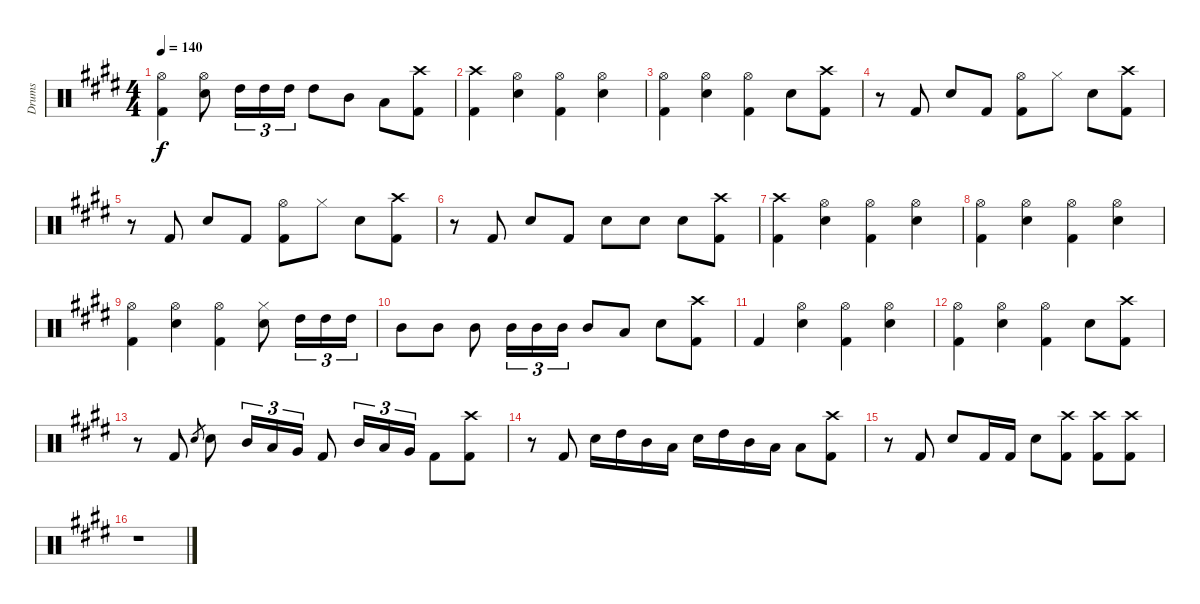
\track ("Drums" "Drums") {instrument percussion}
\staff {score}
\articulation defaults
\ts (4 4)
\tempo 140
\clef neutral
\ks e
("Hi-Hat (open)" "Kick (hit) 2").4{dy f} ("Hi-Hat (open)" "Electric Snare (hit)").8 "High Tom (hit)".16{tu (3 2)} "High Tom (hit)".16{tu (3 2)} "High Tom (hit)".16{tu (3 2)} "High Tom (hit)".8 "Mid Tom (hit)".8 "Low Tom (hit)".8 ("Crash high (hit)" "Kick (hit) 2").8 |
("Crash high (hit)" "Kick (hit) 2").4 ("Hi-Hat (open)" "Electric Snare (hit)").4 ("Hi-Hat (open)" "Kick (hit) 2").4 ("Hi-Hat (open)" "Electric Snare (hit)").4 |
("Hi-Hat (open)" "Kick (hit) 2").4 ("Hi-Hat (open)" "Electric Snare (hit)").4 ("Hi-Hat (open)" "Kick (hit) 2").4 "Electric Snare (hit)".8 ("Crash high (hit)" "Kick (hit) 2").8 |
r.8 "Kick (hit) 2".8 "Electric Snare (hit)".8 "Kick (hit) 2".8 ("Hi-Hat (open)" "Kick (hit) 2").8 "Hi-Hat (closed)".8 "Electric Snare (hit)".8 ("Crash high (hit)" "Kick (hit) 2").8 |
r.8 "Kick (hit) 2".8 "Electric Snare (hit)".8 "Kick (hit) 2".8 ("Hi-Hat (open)" "Kick (hit) 2").8 "Hi-Hat (closed)".8 "Electric Snare (hit)".8 ("Crash high (hit)" "Kick (hit) 2").8 |
r.8 "Kick (hit) 2".8 "Electric Snare (hit)".8 "Kick (hit) 2".8 "Electric Snare (hit)".8 "Electric Snare (hit)".8 "Electric Snare (hit)".8 ("Crash high (hit)" "Kick (hit) 2").8 |
("Crash high (hit)" "Kick (hit) 2").4 ("Hi-Hat (open)" "Electric Snare (hit)").4 ("Hi-Hat (open)" "Kick (hit) 2").4 ("Hi-Hat (open)" "Electric Snare (hit)").4 |
("Hi-Hat (open)" "Kick (hit) 2").4 ("Hi-Hat (open)" "Electric Snare (hit)").4 ("Hi-Hat (open)" "Kick (hit) 2").4 ("Hi-Hat (open)" "Electric Snare (hit)").4 |
("Hi-Hat (open)" "Kick (hit) 2").4 ("Hi-Hat (open)" "Electric Snare (hit)").4 ("Hi-Hat (open)" "Kick (hit) 2").4 ("Hi-Hat (closed)" "Electric Snare (hit)").8 "High Tom (hit)".16{tu (3 2)} "High Tom (hit)".16{tu (3 2)} "High Tom (hit)".16{tu (3 2)} |
"Mid Tom (hit)".8 "Mid Tom (hit)".8 "Mid Tom (hit)".8 "Mid Tom (hit)".16{tu (3 2)} "Mid Tom (hit)".16{tu (3 2)} "Mid Tom (hit)".16{tu (3 2)} "Mid Tom (hit)".8 "Low Tom (hit)".8 "Electric Snare (hit)".8 ("Crash high (hit)" "Kick (hit) 2").8 |
"Kick (hit) 2".4 ("Hi-Hat (open)" "Electric Snare (hit)").4 ("Hi-Hat (open)" "Kick (hit) 2").4 ("Hi-Hat (open)" "Electric Snare (hit)").4 |
("Hi-Hat (open)" "Kick (hit) 2").4 ("Hi-Hat (open)" "Electric Snare (hit)").4 ("Hi-Hat (open)" "Kick (hit) 2").4 "Electric Snare (hit)".8 ("Crash high (hit)" "Kick (hit) 2").8 |
r.8 "Kick (hit) 2".8 "Electric Snare (hit)".8{gr} "Electric Snare (hit)".8 "Mid Tom (hit)".16{tu (3 2)} "Low Tom (hit)".16{tu (3 2)} "Very Low Tom (hit)".16{tu (3 2)} "Kick (hit) 2".8 "Mid Tom (hit)".16{tu (3 2)} "Low Tom (hit)".16{tu (3 2)} "Very Low Tom (hit)".16{tu (3 2)} "Kick (hit) 2".8 ("Crash high (hit)" "Kick (hit) 2").8 |
r.8 "Kick (hit) 2".8 "Electric Snare (hit)".16 "High Tom (hit)".16 "Mid Tom (hit)".16 "Low Tom (hit)".16 "Electric Snare (hit)".16 "High Tom (hit)".16 "Mid Tom (hit)".16 "Low Tom (hit)".16 "Low Tom (hit)".8 ("Crash high (hit)" "Kick (hit) 2").8 |
r.8 "Kick (hit) 2".8 "Electric Snare (hit)".8 "Kick (hit) 2".16 "Kick (hit) 2".16 "Electric Snare (hit)".8 ("Crash high (hit)" "Kick (hit) 2").8 ("Crash high (hit)" "Kick (hit) 2").8 ("Crash high (hit)" "Kick (hit) 2").8 |
r.1
